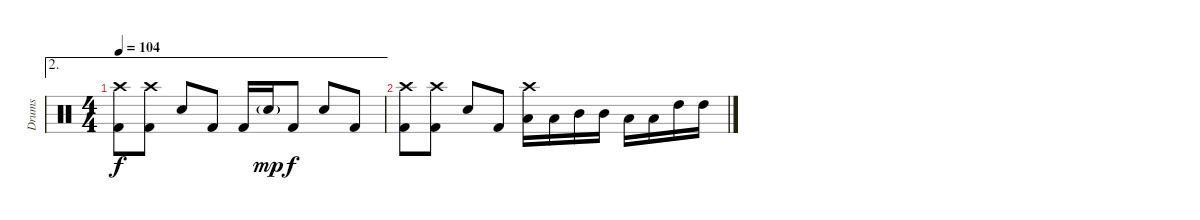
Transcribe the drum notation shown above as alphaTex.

\track ("Drums" "Drums") {instrument percussion}
\staff {score}
\articulation defaults
\ae 2
\ts (4 4)
\tempo 104
\clef neutral
\ks c
("Crash high (hit)" "Kick (hit) 2").8{dy f} ("Crash high (hit)" "Kick (hit) 2").8 "Snare (hit) 2".8 "Kick (hit) 2".8 "Kick (hit) 2".16 "Snare (hit) 2"{g}.16{dy mp} "Kick (hit) 2".8{dy f} "Snare (hit) 2".8 "Kick (hit) 2".8 |
("Crash high (hit)" "Kick (hit) 2").8 ("Crash high (hit)" "Kick (hit) 2").8 "Snare (hit) 2".8 "Kick (hit) 2".8 ("Crash high (hit)" "Low Tom (hit)").16 "Low Tom (hit)".16 "Mid Tom (hit)".16 "Mid Tom (hit)".16 "Low Tom (hit)".16 "Low Tom (hit)".16 "High Tom (hit)".16 "High Tom (hit)".16
